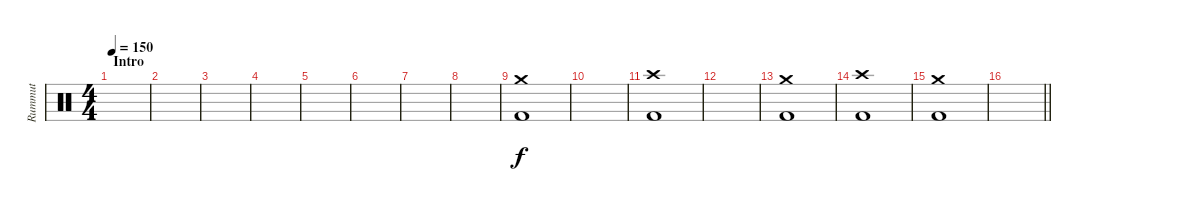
\track ("Rummut" "Rummut") {instrument percussion}
\staff {score}
\articulation defaults
\ts (4 4)
\section ("" "Intro")
\tempo 150
\clef neutral
\ks c
|
|
|
|
|
|
|
|
("Crash medium (hit)" "Kick (hit) 2").1 |
|
("Crash high (hit)" "Kick (hit) 2").1 |
|
("Crash medium (hit)" "Kick (hit) 2").1 |
("Crash high (hit)" "Kick (hit) 2").1 |
("Crash medium (hit)" "Kick (hit) 2").1 |
\barLineRight lightlight
